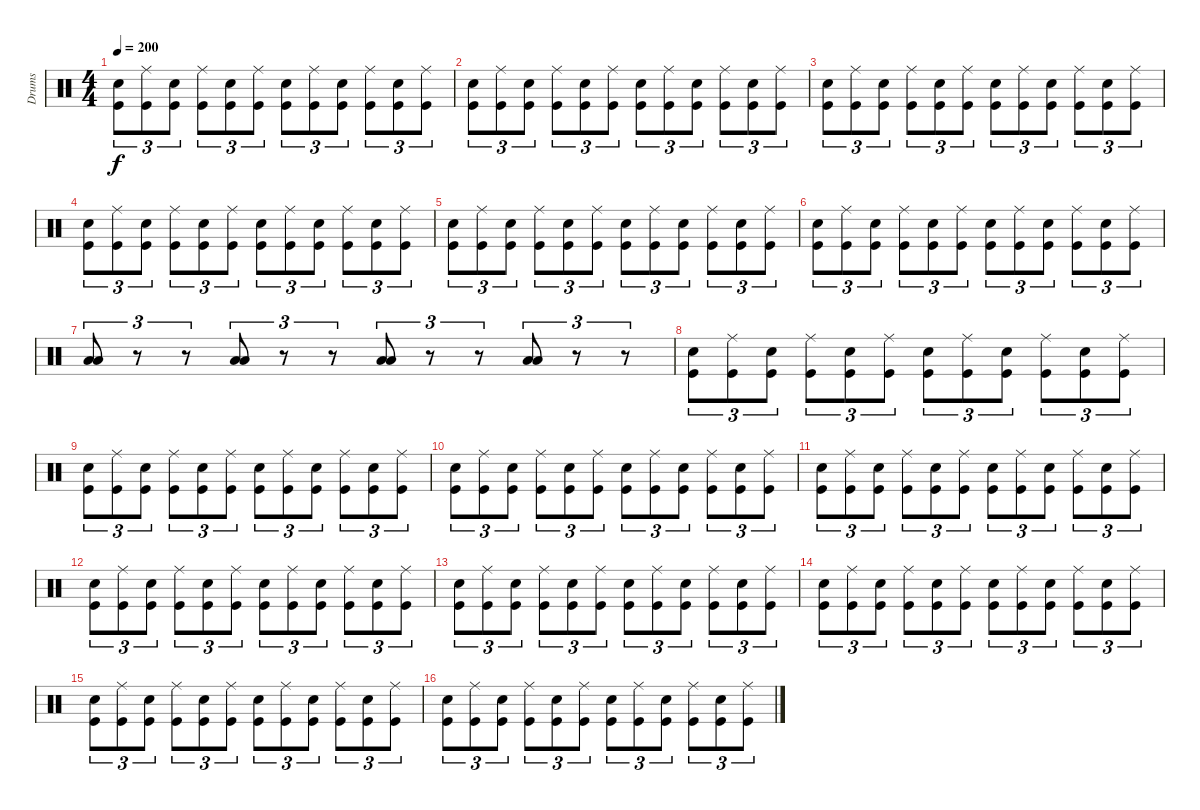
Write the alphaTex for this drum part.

\track ("Drums" "Drums") {instrument percussion}
\staff {score}
\articulation defaults
\ts (4 4)
\tempo 200
\clef neutral
\ks c
("Electric Snare (hit)" "Kick (hit)").8{tu (3 2) dy f} ("Ride (middle)" "Kick (hit)").8{tu (3 2)} ("Electric Snare (hit)" "Kick (hit)").8{tu (3 2)} ("Ride (middle)" "Kick (hit)").8{tu (3 2)} ("Electric Snare (hit)" "Kick (hit)").8{tu (3 2)} ("Ride (middle)" "Kick (hit)").8{tu (3 2)} ("Electric Snare (hit)" "Kick (hit)").8{tu (3 2)} ("Ride (middle)" "Kick (hit)").8{tu (3 2)} ("Electric Snare (hit)" "Kick (hit)").8{tu (3 2)} ("Ride (middle)" "Kick (hit)").8{tu (3 2)} ("Electric Snare (hit)" "Kick (hit)").8{tu (3 2)} ("Ride (middle)" "Kick (hit)").8{tu (3 2)} |
("Electric Snare (hit)" "Kick (hit)").8{tu (3 2)} ("Ride (middle)" "Kick (hit)").8{tu (3 2)} ("Electric Snare (hit)" "Kick (hit)").8{tu (3 2)} ("Ride (middle)" "Kick (hit)").8{tu (3 2)} ("Electric Snare (hit)" "Kick (hit)").8{tu (3 2)} ("Ride (middle)" "Kick (hit)").8{tu (3 2)} ("Electric Snare (hit)" "Kick (hit)").8{tu (3 2)} ("Ride (middle)" "Kick (hit)").8{tu (3 2)} ("Electric Snare (hit)" "Kick (hit)").8{tu (3 2)} ("Ride (middle)" "Kick (hit)").8{tu (3 2)} ("Electric Snare (hit)" "Kick (hit)").8{tu (3 2)} ("Ride (middle)" "Kick (hit)").8{tu (3 2)} |
("Electric Snare (hit)" "Kick (hit)").8{tu (3 2)} ("Ride (middle)" "Kick (hit)").8{tu (3 2)} ("Electric Snare (hit)" "Kick (hit)").8{tu (3 2)} ("Ride (middle)" "Kick (hit)").8{tu (3 2)} ("Electric Snare (hit)" "Kick (hit)").8{tu (3 2)} ("Ride (middle)" "Kick (hit)").8{tu (3 2)} ("Electric Snare (hit)" "Kick (hit)").8{tu (3 2)} ("Ride (middle)" "Kick (hit)").8{tu (3 2)} ("Electric Snare (hit)" "Kick (hit)").8{tu (3 2)} ("Ride (middle)" "Kick (hit)").8{tu (3 2)} ("Electric Snare (hit)" "Kick (hit)").8{tu (3 2)} ("Ride (middle)" "Kick (hit)").8{tu (3 2)} |
("Electric Snare (hit)" "Kick (hit)").8{tu (3 2)} ("Ride (middle)" "Kick (hit)").8{tu (3 2)} ("Electric Snare (hit)" "Kick (hit)").8{tu (3 2)} ("Ride (middle)" "Kick (hit)").8{tu (3 2)} ("Electric Snare (hit)" "Kick (hit)").8{tu (3 2)} ("Ride (middle)" "Kick (hit)").8{tu (3 2)} ("Electric Snare (hit)" "Kick (hit)").8{tu (3 2)} ("Ride (middle)" "Kick (hit)").8{tu (3 2)} ("Electric Snare (hit)" "Kick (hit)").8{tu (3 2)} ("Ride (middle)" "Kick (hit)").8{tu (3 2)} ("Electric Snare (hit)" "Kick (hit)").8{tu (3 2)} ("Ride (middle)" "Kick (hit)").8{tu (3 2)} |
("Electric Snare (hit)" "Kick (hit)").8{tu (3 2)} ("Ride (middle)" "Kick (hit)").8{tu (3 2)} ("Electric Snare (hit)" "Kick (hit)").8{tu (3 2)} ("Ride (middle)" "Kick (hit)").8{tu (3 2)} ("Electric Snare (hit)" "Kick (hit)").8{tu (3 2)} ("Ride (middle)" "Kick (hit)").8{tu (3 2)} ("Electric Snare (hit)" "Kick (hit)").8{tu (3 2)} ("Ride (middle)" "Kick (hit)").8{tu (3 2)} ("Electric Snare (hit)" "Kick (hit)").8{tu (3 2)} ("Ride (middle)" "Kick (hit)").8{tu (3 2)} ("Electric Snare (hit)" "Kick (hit)").8{tu (3 2)} ("Ride (middle)" "Kick (hit)").8{tu (3 2)} |
("Electric Snare (hit)" "Kick (hit)").8{tu (3 2)} ("Ride (middle)" "Kick (hit)").8{tu (3 2)} ("Electric Snare (hit)" "Kick (hit)").8{tu (3 2)} ("Ride (middle)" "Kick (hit)").8{tu (3 2)} ("Electric Snare (hit)" "Kick (hit)").8{tu (3 2)} ("Ride (middle)" "Kick (hit)").8{tu (3 2)} ("Electric Snare (hit)" "Kick (hit)").8{tu (3 2)} ("Ride (middle)" "Kick (hit)").8{tu (3 2)} ("Electric Snare (hit)" "Kick (hit)").8{tu (3 2)} ("Ride (middle)" "Kick (hit)").8{tu (3 2)} ("Electric Snare (hit)" "Kick (hit)").8{tu (3 2)} ("Ride (middle)" "Kick (hit)").8{tu (3 2)} |
("Low Tom (hit)" "Low Tom (hit)").8{tu (3 2)} r.8{tu (3 2)} r.8{tu (3 2)} ("Low Tom (hit)" "Low Tom (hit)").8{tu (3 2)} r.8{tu (3 2)} r.8{tu (3 2)} ("Low Tom (hit)" "Low Tom (hit)").8{tu (3 2)} r.8{tu (3 2)} r.8{tu (3 2)} ("Low Tom (hit)" "Low Tom (hit)").8{tu (3 2)} r.8{tu (3 2)} r.8{tu (3 2)} |
("Electric Snare (hit)" "Kick (hit)").8{tu (3 2)} ("Ride (middle)" "Kick (hit)").8{tu (3 2)} ("Electric Snare (hit)" "Kick (hit)").8{tu (3 2)} ("Ride (middle)" "Kick (hit)").8{tu (3 2)} ("Electric Snare (hit)" "Kick (hit)").8{tu (3 2)} ("Ride (middle)" "Kick (hit)").8{tu (3 2)} ("Electric Snare (hit)" "Kick (hit)").8{tu (3 2)} ("Ride (middle)" "Kick (hit)").8{tu (3 2)} ("Electric Snare (hit)" "Kick (hit)").8{tu (3 2)} ("Ride (middle)" "Kick (hit)").8{tu (3 2)} ("Electric Snare (hit)" "Kick (hit)").8{tu (3 2)} ("Ride (middle)" "Kick (hit)").8{tu (3 2)} |
("Electric Snare (hit)" "Kick (hit)").8{tu (3 2)} ("Ride (middle)" "Kick (hit)").8{tu (3 2)} ("Electric Snare (hit)" "Kick (hit)").8{tu (3 2)} ("Ride (middle)" "Kick (hit)").8{tu (3 2)} ("Electric Snare (hit)" "Kick (hit)").8{tu (3 2)} ("Ride (middle)" "Kick (hit)").8{tu (3 2)} ("Electric Snare (hit)" "Kick (hit)").8{tu (3 2)} ("Ride (middle)" "Kick (hit)").8{tu (3 2)} ("Electric Snare (hit)" "Kick (hit)").8{tu (3 2)} ("Ride (middle)" "Kick (hit)").8{tu (3 2)} ("Electric Snare (hit)" "Kick (hit)").8{tu (3 2)} ("Ride (middle)" "Kick (hit)").8{tu (3 2)} |
("Electric Snare (hit)" "Kick (hit)").8{tu (3 2)} ("Ride (middle)" "Kick (hit)").8{tu (3 2)} ("Electric Snare (hit)" "Kick (hit)").8{tu (3 2)} ("Ride (middle)" "Kick (hit)").8{tu (3 2)} ("Electric Snare (hit)" "Kick (hit)").8{tu (3 2)} ("Ride (middle)" "Kick (hit)").8{tu (3 2)} ("Electric Snare (hit)" "Kick (hit)").8{tu (3 2)} ("Ride (middle)" "Kick (hit)").8{tu (3 2)} ("Electric Snare (hit)" "Kick (hit)").8{tu (3 2)} ("Ride (middle)" "Kick (hit)").8{tu (3 2)} ("Electric Snare (hit)" "Kick (hit)").8{tu (3 2)} ("Ride (middle)" "Kick (hit)").8{tu (3 2)} |
("Electric Snare (hit)" "Kick (hit)").8{tu (3 2)} ("Ride (middle)" "Kick (hit)").8{tu (3 2)} ("Electric Snare (hit)" "Kick (hit)").8{tu (3 2)} ("Ride (middle)" "Kick (hit)").8{tu (3 2)} ("Electric Snare (hit)" "Kick (hit)").8{tu (3 2)} ("Ride (middle)" "Kick (hit)").8{tu (3 2)} ("Electric Snare (hit)" "Kick (hit)").8{tu (3 2)} ("Ride (middle)" "Kick (hit)").8{tu (3 2)} ("Electric Snare (hit)" "Kick (hit)").8{tu (3 2)} ("Ride (middle)" "Kick (hit)").8{tu (3 2)} ("Electric Snare (hit)" "Kick (hit)").8{tu (3 2)} ("Ride (middle)" "Kick (hit)").8{tu (3 2)} |
("Electric Snare (hit)" "Kick (hit)").8{tu (3 2)} ("Ride (middle)" "Kick (hit)").8{tu (3 2)} ("Electric Snare (hit)" "Kick (hit)").8{tu (3 2)} ("Ride (middle)" "Kick (hit)").8{tu (3 2)} ("Electric Snare (hit)" "Kick (hit)").8{tu (3 2)} ("Ride (middle)" "Kick (hit)").8{tu (3 2)} ("Electric Snare (hit)" "Kick (hit)").8{tu (3 2)} ("Ride (middle)" "Kick (hit)").8{tu (3 2)} ("Electric Snare (hit)" "Kick (hit)").8{tu (3 2)} ("Ride (middle)" "Kick (hit)").8{tu (3 2)} ("Electric Snare (hit)" "Kick (hit)").8{tu (3 2)} ("Ride (middle)" "Kick (hit)").8{tu (3 2)} |
("Electric Snare (hit)" "Kick (hit)").8{tu (3 2)} ("Ride (middle)" "Kick (hit)").8{tu (3 2)} ("Electric Snare (hit)" "Kick (hit)").8{tu (3 2)} ("Ride (middle)" "Kick (hit)").8{tu (3 2)} ("Electric Snare (hit)" "Kick (hit)").8{tu (3 2)} ("Ride (middle)" "Kick (hit)").8{tu (3 2)} ("Electric Snare (hit)" "Kick (hit)").8{tu (3 2)} ("Ride (middle)" "Kick (hit)").8{tu (3 2)} ("Electric Snare (hit)" "Kick (hit)").8{tu (3 2)} ("Ride (middle)" "Kick (hit)").8{tu (3 2)} ("Electric Snare (hit)" "Kick (hit)").8{tu (3 2)} ("Ride (middle)" "Kick (hit)").8{tu (3 2)} |
("Electric Snare (hit)" "Kick (hit)").8{tu (3 2)} ("Ride (middle)" "Kick (hit)").8{tu (3 2)} ("Electric Snare (hit)" "Kick (hit)").8{tu (3 2)} ("Ride (middle)" "Kick (hit)").8{tu (3 2)} ("Electric Snare (hit)" "Kick (hit)").8{tu (3 2)} ("Ride (middle)" "Kick (hit)").8{tu (3 2)} ("Electric Snare (hit)" "Kick (hit)").8{tu (3 2)} ("Ride (middle)" "Kick (hit)").8{tu (3 2)} ("Electric Snare (hit)" "Kick (hit)").8{tu (3 2)} ("Ride (middle)" "Kick (hit)").8{tu (3 2)} ("Electric Snare (hit)" "Kick (hit)").8{tu (3 2)} ("Ride (middle)" "Kick (hit)").8{tu (3 2)} |
("Electric Snare (hit)" "Kick (hit)").8{tu (3 2)} ("Ride (middle)" "Kick (hit)").8{tu (3 2)} ("Electric Snare (hit)" "Kick (hit)").8{tu (3 2)} ("Ride (middle)" "Kick (hit)").8{tu (3 2)} ("Electric Snare (hit)" "Kick (hit)").8{tu (3 2)} ("Ride (middle)" "Kick (hit)").8{tu (3 2)} ("Electric Snare (hit)" "Kick (hit)").8{tu (3 2)} ("Ride (middle)" "Kick (hit)").8{tu (3 2)} ("Electric Snare (hit)" "Kick (hit)").8{tu (3 2)} ("Ride (middle)" "Kick (hit)").8{tu (3 2)} ("Electric Snare (hit)" "Kick (hit)").8{tu (3 2)} ("Ride (middle)" "Kick (hit)").8{tu (3 2)} |
("Electric Snare (hit)" "Kick (hit)").8{tu (3 2)} ("Ride (middle)" "Kick (hit)").8{tu (3 2)} ("Electric Snare (hit)" "Kick (hit)").8{tu (3 2)} ("Ride (middle)" "Kick (hit)").8{tu (3 2)} ("Electric Snare (hit)" "Kick (hit)").8{tu (3 2)} ("Ride (middle)" "Kick (hit)").8{tu (3 2)} ("Electric Snare (hit)" "Kick (hit)").8{tu (3 2)} ("Ride (middle)" "Kick (hit)").8{tu (3 2)} ("Electric Snare (hit)" "Kick (hit)").8{tu (3 2)} ("Ride (middle)" "Kick (hit)").8{tu (3 2)} ("Electric Snare (hit)" "Kick (hit)").8{tu (3 2)} ("Ride (middle)" "Kick (hit)").8{tu (3 2)}
